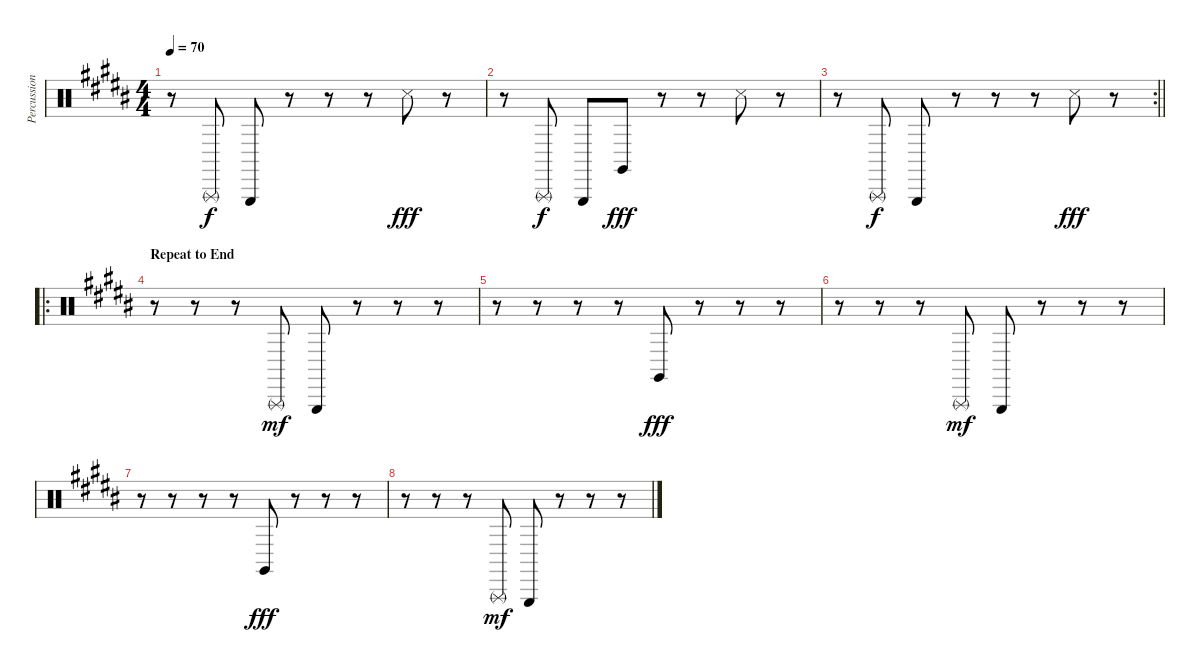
\track ("Percussion" "Percussion") {instrument percussion}
\staff {score}
\articulation defaults
\ts (4 4)
\tempo 70
\clef neutral
\ks b
r.8{dy fff} "Triangle (rnute)".8{dy f} "Triangle (hit)".8 r.8 r.8 r.8 "Snare (side stick) 3".8{dy fff} r.8 |
r.8 "Triangle (rnute)".8{dy f} "Triangle (hit)".8 "Claves (hit)".8{dy fff} r.8 r.8 "Snare (side stick) 3".8 r.8 |
\rc 2
\barLineRight lightlight
r.8 "Triangle (rnute)".8{dy f} "Triangle (hit)".8 r.8 r.8 r.8 "Snare (side stick) 3".8{dy fff} r.8 |
\ro
\section ("" "Repeat to End")
r.8 r.8 r.8 "Triangle (rnute)".8{dy mf} "Triangle (hit)".8 r.8 r.8 r.8 |
r.8 r.8 r.8 r.8 "Claves (hit)".8{dy fff} r.8 r.8 r.8 |
r.8 r.8 r.8 "Triangle (rnute)".8{dy mf} "Triangle (hit)".8 r.8 r.8 r.8 |
r.8 r.8 r.8 r.8 "Claves (hit)".8{dy fff} r.8 r.8 r.8 |
r.8 r.8 r.8 "Triangle (rnute)".8{dy mf} "Triangle (hit)".8 r.8 r.8 r.8
